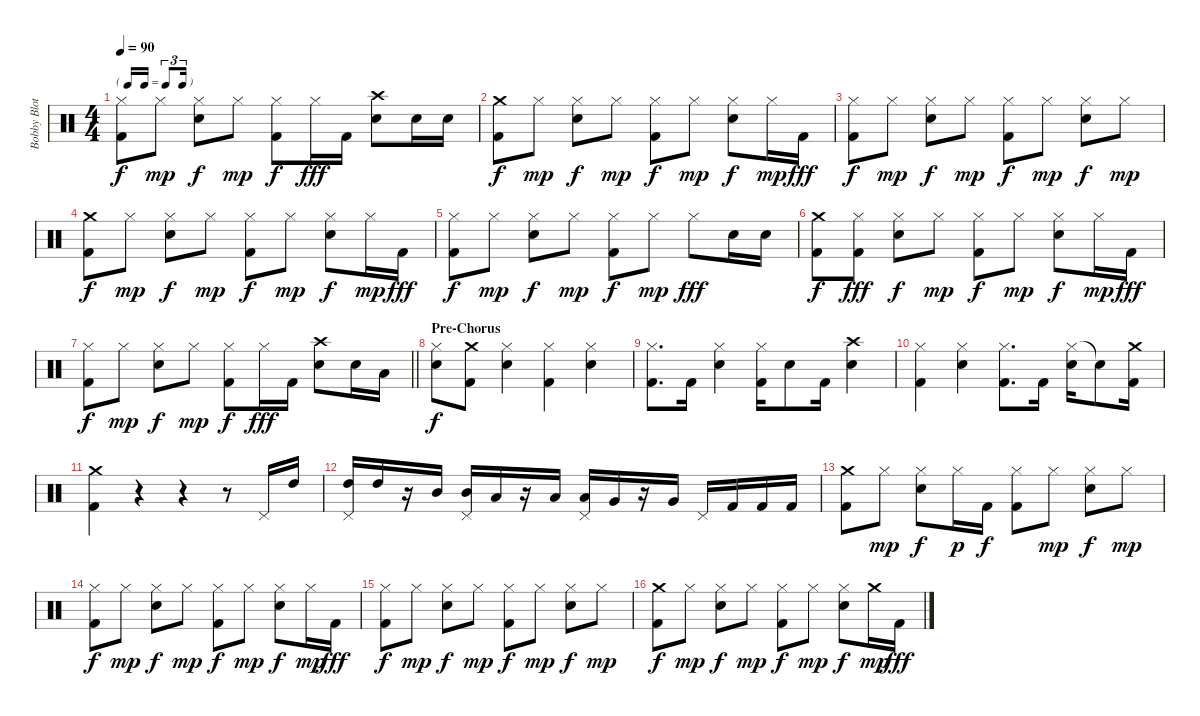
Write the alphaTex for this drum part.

\track ("Bobby Blotzer - Drums" "Bobby Blot") {instrument percussion}
\staff {score}
\articulation defaults
\ts (4 4)
\tf triplet16th
\tempo 90
\clef neutral
\ks c
("Hi-Hat (closed)" "Kick (hit) 2").8{dy f} "Hi-Hat (closed)".8{dy mp} ("Hi-Hat (closed)" "Snare (hit) 2").8{dy f} "Hi-Hat (closed)".8{dy mp} ("Hi-Hat (closed)" "Kick (hit) 2").8{dy f} "Hi-Hat (closed)".16{dy fff} "Kick (hit) 2".16 ("Crash high (hit)" "Snare (hit) 2").8 "Snare (hit) 2".16 "Snare (hit) 2".16 |
("Crash medium (hit)" "Kick (hit) 2").8{dy f} "Hi-Hat (closed)".8{dy mp} ("Hi-Hat (closed)" "Snare (hit) 2").8{dy f} "Hi-Hat (closed)".8{dy mp} ("Hi-Hat (closed)" "Kick (hit) 2").8{dy f} "Hi-Hat (closed)".8{dy mp} ("Hi-Hat (closed)" "Snare (hit) 2").8{dy f} "Hi-Hat (closed)".16{dy mp} "Kick (hit) 2".16{dy fff} |
("Hi-Hat (closed)" "Kick (hit) 2").8{dy f} "Hi-Hat (closed)".8{dy mp} ("Hi-Hat (closed)" "Snare (hit) 2").8{dy f} "Hi-Hat (closed)".8{dy mp} ("Hi-Hat (closed)" "Kick (hit) 2").8{dy f} "Hi-Hat (closed)".8{dy mp} ("Hi-Hat (closed)" "Snare (hit) 2").8{dy f} "Hi-Hat (closed)".8{dy mp} |
("Crash medium (hit)" "Kick (hit) 2").8{dy f} "Hi-Hat (closed)".8{dy mp} ("Hi-Hat (closed)" "Snare (hit) 2").8{dy f} "Hi-Hat (closed)".8{dy mp} ("Hi-Hat (closed)" "Kick (hit) 2").8{dy f} "Hi-Hat (closed)".8{dy mp} ("Hi-Hat (closed)" "Snare (hit) 2").8{dy f} "Hi-Hat (closed)".16{dy mp} "Kick (hit) 2".16{dy fff} |
("Hi-Hat (closed)" "Kick (hit) 2").8{dy f} "Hi-Hat (closed)".8{dy mp} ("Hi-Hat (closed)" "Snare (hit) 2").8{dy f} "Hi-Hat (closed)".8{dy mp} ("Hi-Hat (closed)" "Kick (hit) 2").8{dy f} "Hi-Hat (closed)".8{dy mp} "Hi-Hat (closed)".8{dy fff} "Snare (hit) 2".16 "Snare (hit) 2".16 |
("Crash medium (hit)" "Kick (hit) 2").8{dy f} ("Hi-Hat (closed)" "Kick (hit) 2").8{dy fff} ("Hi-Hat (closed)" "Snare (hit) 2").8{dy f} "Hi-Hat (closed)".8{dy mp} ("Hi-Hat (closed)" "Kick (hit) 2").8{dy f} "Hi-Hat (closed)".8{dy mp} ("Hi-Hat (closed)" "Snare (hit) 2").8{dy f} "Hi-Hat (closed)".16{dy mp} "Kick (hit) 2".16{dy fff} |
\barLineRight lightlight
("Hi-Hat (closed)" "Kick (hit) 2").8{dy f} "Hi-Hat (closed)".8{dy mp} ("Hi-Hat (closed)" "Snare (hit) 2").8{dy f} "Hi-Hat (closed)".8{dy mp} ("Hi-Hat (closed)" "Kick (hit) 2").8{dy f} "Hi-Hat (closed)".16{dy fff} "Kick (hit) 2".16 ("Crash high (hit)" "Snare (hit) 2").8 "Snare (hit) 2".16 "Low Tom (hit)".16 |
\section ("" "Pre-Chorus")
("Hi-Hat (closed)" "Snare (hit) 2").8{dy f} ("Crash medium (hit)" "Kick (hit) 2").8 ("Hi-Hat (closed)" "Snare (hit) 2").4 ("Hi-Hat (closed)" "Kick (hit) 2").4 ("Hi-Hat (closed)" "Snare (hit) 2").4 |
("Hi-Hat (closed)" "Kick (hit) 2").8{d} "Kick (hit) 2".16 ("Hi-Hat (closed)" "Snare (hit) 2").4 ("Hi-Hat (closed)" "Kick (hit) 2").16 "Snare (hit) 2".8 "Kick (hit) 2".16 ("Crash high (hit)" "Snare (hit) 2").4 |
("Hi-Hat (closed)" "Kick (hit) 2").4 ("Hi-Hat (closed)" "Snare (hit) 2").4 ("Hi-Hat (closed)" "Kick (hit) 2").8{d} "Kick (hit) 2".16 ("Hi-Hat (closed)" "Snare (hit) 2").16 "Snare (hit)"{t}.8 ("Crash medium (hit)" "Kick (hit) 2").16 |
("Crash medium (hit)" "Kick (hit) 2").4 r.4 r.4 r.8 "Pedal Hi-Hat (hit)".16 "High Tom (hit)".16 |
("Pedal Hi-Hat (hit)" "High Tom (hit)").16 "High Tom (hit)".16 r.16 "Mid Tom (hit)".16 ("Pedal Hi-Hat (hit)" "Mid Tom (hit)").16 "Low Tom (hit)".16 r.16 "Low Tom (hit)".16 ("Pedal Hi-Hat (hit)" "Low Tom (hit)").16 "Very Low Tom (hit)".16 r.16 "Very Low Tom (hit)".16 "Pedal Hi-Hat (hit)".16 "Kick (hit) 2".16 "Kick (hit) 2".16 "Kick (hit) 2".16 |
("Crash medium (hit)" "Kick (hit) 2").8 "Hi-Hat (closed)".8{dy mp} ("Hi-Hat (closed)" "Snare (hit) 2").8{dy f} "Hi-Hat (closed)".16{dy p} "Kick (hit) 2".16{dy f} ("Hi-Hat (closed)" "Kick (hit) 2").8 "Hi-Hat (closed)".8{dy mp} ("Hi-Hat (closed)" "Snare (hit) 2").8{dy f} "Hi-Hat (closed)".8{dy mp} |
("Hi-Hat (closed)" "Kick (hit) 2").8{dy f} "Hi-Hat (closed)".8{dy mp} ("Hi-Hat (closed)" "Snare (hit) 2").8{dy f} "Hi-Hat (closed)".8{dy mp} ("Hi-Hat (closed)" "Kick (hit) 2").8{dy f} "Hi-Hat (closed)".8{dy mp} ("Hi-Hat (closed)" "Snare (hit) 2").8{dy f} "Hi-Hat (closed)".16{dy mp} "Kick (hit) 2".16{dy fff} |
("Hi-Hat (closed)" "Kick (hit) 2").8{dy f} "Hi-Hat (closed)".8{dy mp} ("Hi-Hat (closed)" "Snare (hit) 2").8{dy f} "Hi-Hat (closed)".8{dy mp} ("Hi-Hat (closed)" "Kick (hit) 2").8{dy f} "Hi-Hat (closed)".8{dy mp} ("Hi-Hat (closed)" "Snare (hit) 2").8{dy f} "Hi-Hat (closed)".8{dy mp} |
("Crash medium (hit)" "Kick (hit) 2").8{dy f} "Hi-Hat (closed)".8{dy mp} ("Hi-Hat (closed)" "Snare (hit) 2").8{dy f} "Hi-Hat (closed)".8{dy mp} ("Hi-Hat (closed)" "Kick (hit) 2").8{dy f} "Hi-Hat (closed)".8{dy mp} ("Hi-Hat (closed)" "Snare (hit) 2").8{dy f} "Crash medium (hit)".16{dy mp} "Kick (hit) 2".16{dy fff}
